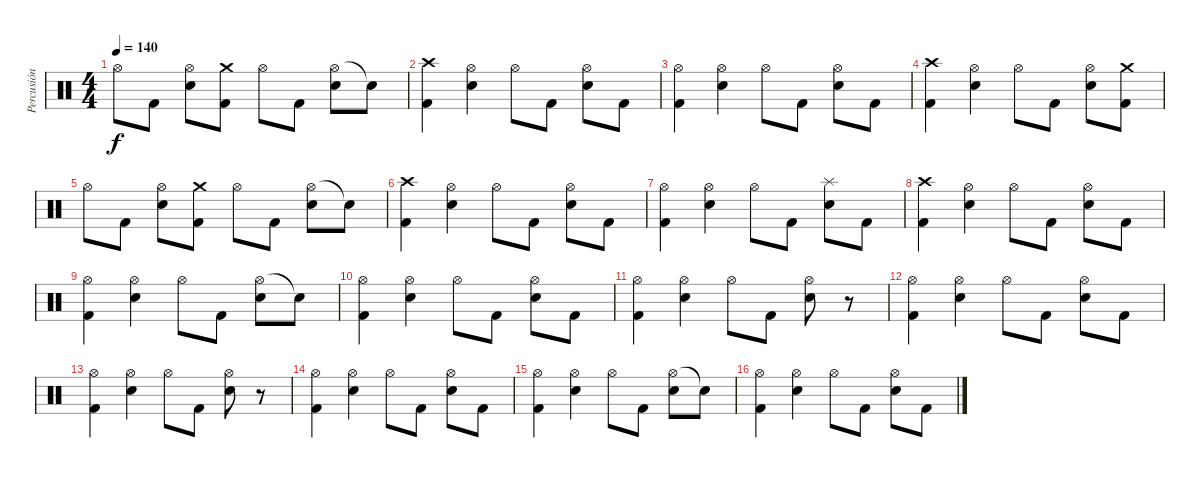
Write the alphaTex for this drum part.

\track ("Percusión" "Percusión") {instrument percussion}
\staff {score}
\articulation defaults
\ts (4 4)
\tempo 140
\clef neutral
\ks c "Hi-Hat (open)".8{dy f} "Kick (hit) 2".8
("Hi-Hat (open)" "Snare (hit) 2").8 ("Crash medium (hit)" "Kick (hit) 2").8 "Hi-Hat (open)".8 "Kick (hit) 2".8 ("Hi-Hat (open)" "Snare (hit) 2").8 "Snare (hit)"{t}.8 |
("Crash high (hit)" "Kick (hit) 2").4 ("Hi-Hat (open)" "Snare (hit) 2").4 "Hi-Hat (open)".8 "Kick (hit) 2".8 ("Hi-Hat (open)" "Snare (hit) 2").8 "Kick (hit) 2".8 |
("Hi-Hat (open)" "Kick (hit) 2").4 ("Hi-Hat (open)" "Snare (hit) 2").4 "Hi-Hat (open)".8 "Kick (hit) 2".8 ("Hi-Hat (open)" "Snare (hit) 2").8 "Kick (hit) 2".8 |
("Crash high (hit)" "Kick (hit) 2").4 ("Hi-Hat (open)" "Snare (hit) 2").4 "Hi-Hat (open)".8 "Kick (hit) 2".8 ("Hi-Hat (open)" "Snare (hit) 2").8 ("Crash medium (hit)" "Kick (hit) 2").8 |
"Hi-Hat (open)".8 "Kick (hit) 2".8 ("Hi-Hat (open)" "Snare (hit) 2").8 ("Crash medium (hit)" "Kick (hit) 2").8 "Hi-Hat (open)".8 "Kick (hit) 2".8 ("Hi-Hat (open)" "Snare (hit) 2").8 "Snare (hit)"{t}.8 |
("Crash high (hit)" "Kick (hit) 2").4 ("Hi-Hat (open)" "Snare (hit) 2").4 "Hi-Hat (open)".8 "Kick (hit) 2".8 ("Hi-Hat (open)" "Snare (hit) 2").8 "Kick (hit) 2".8 |
("Hi-Hat (open)" "Kick (hit) 2").4 ("Hi-Hat (open)" "Snare (hit) 2").4 "Hi-Hat (open)".8 "Kick (hit) 2".8 ("Splash (hit)" "Snare (hit) 2").8 "Kick (hit) 2".8 |
("Crash high (hit)" "Kick (hit) 2").4 ("Hi-Hat (open)" "Snare (hit) 2").4 "Hi-Hat (open)".8 "Kick (hit) 2".8 ("Hi-Hat (open)" "Snare (hit) 2").8 "Kick (hit) 2".8 |
("Hi-Hat (open)" "Kick (hit) 2").4 ("Hi-Hat (open)" "Snare (hit) 2").4 "Hi-Hat (open)".8 "Kick (hit) 2".8 ("Hi-Hat (open)" "Snare (hit) 2").8 "Snare (hit)"{t}.8 |
("Hi-Hat (open)" "Kick (hit) 2").4 ("Hi-Hat (open)" "Snare (hit) 2").4 "Hi-Hat (open)".8 "Kick (hit) 2".8 ("Hi-Hat (open)" "Snare (hit) 2").8 "Kick (hit) 2".8 |
("Hi-Hat (open)" "Kick (hit) 2").4 ("Hi-Hat (open)" "Snare (hit) 2").4 "Hi-Hat (open)".8 "Kick (hit) 2".8 ("Hi-Hat (open)" "Snare (hit) 2").8 r.8 |
("Hi-Hat (open)" "Kick (hit) 2").4 ("Hi-Hat (open)" "Snare (hit) 2").4 "Hi-Hat (open)".8 "Kick (hit) 2".8 ("Hi-Hat (open)" "Snare (hit) 2").8 "Kick (hit) 2".8 |
("Hi-Hat (open)" "Kick (hit) 2").4 ("Hi-Hat (open)" "Snare (hit) 2").4 "Hi-Hat (open)".8 "Kick (hit) 2".8 ("Hi-Hat (open)" "Snare (hit) 2").8 r.8 |
("Hi-Hat (open)" "Kick (hit) 2").4 ("Hi-Hat (open)" "Snare (hit) 2").4 "Hi-Hat (open)".8 "Kick (hit) 2".8 ("Hi-Hat (open)" "Snare (hit) 2").8 "Kick (hit) 2".8 |
("Hi-Hat (open)" "Kick (hit) 2").4 ("Hi-Hat (open)" "Snare (hit) 2").4 "Hi-Hat (open)".8 "Kick (hit) 2".8 ("Hi-Hat (open)" "Snare (hit) 2").8 "Snare (hit)"{t}.8 |
("Hi-Hat (open)" "Kick (hit) 2").4 ("Hi-Hat (open)" "Snare (hit) 2").4 "Hi-Hat (open)".8 "Kick (hit) 2".8 ("Hi-Hat (open)" "Snare (hit) 2").8 "Kick (hit) 2".8
